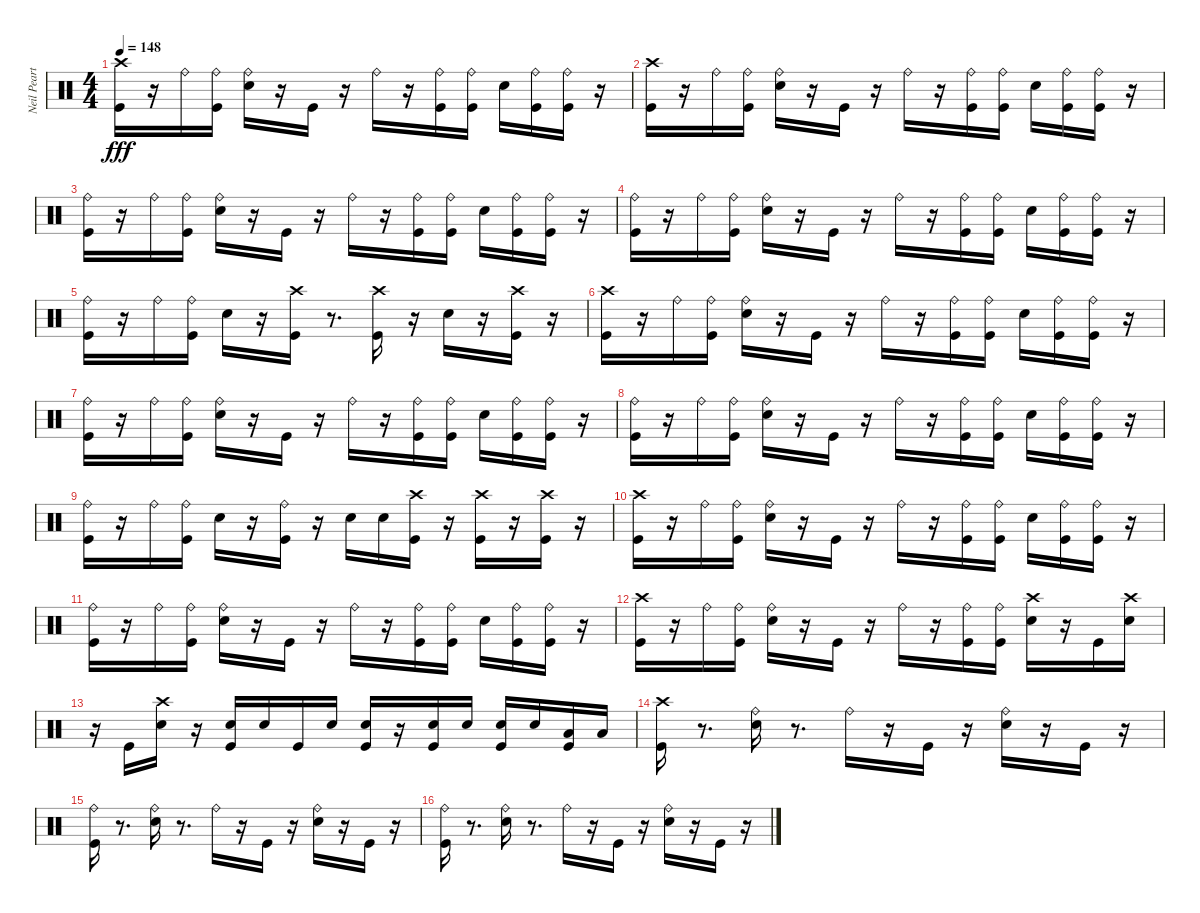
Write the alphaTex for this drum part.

\track ("Neil Peart" "Neil Peart") {instrument percussion}
\staff {score}
\articulation defaults
\ts (4 4)
\tempo 148
\clef neutral
\ks c
("Crash high (hit)" "Kick (hit)").16{dy fff} r.16 "Ride (bell)".16 ("Ride (bell)" "Kick (hit)").16 ("Ride (bell)" "Snare (hit) 2").16 r.16 "Kick (hit)".16 r.16 "Ride (bell)".16 r.16 ("Ride (bell)" "Kick (hit)").16 ("Ride (bell)" "Kick (hit)").16 "Snare (hit) 2".16 ("Ride (bell)" "Kick (hit)").16 ("Ride (bell)" "Kick (hit)").16 r.16 |
("Crash high (hit)" "Kick (hit)").16 r.16 "Ride (bell)".16 ("Ride (bell)" "Kick (hit)").16 ("Ride (bell)" "Snare (hit) 2").16 r.16 "Kick (hit)".16 r.16 "Ride (bell)".16 r.16 ("Ride (bell)" "Kick (hit)").16 ("Ride (bell)" "Kick (hit)").16 "Snare (hit) 2".16 ("Ride (bell)" "Kick (hit)").16 ("Ride (bell)" "Kick (hit)").16 r.16 |
("Kick (hit)" "Ride (bell)").16 r.16 "Ride (bell)".16 ("Kick (hit)" "Ride (bell)").16 ("Snare (hit) 2" "Ride (bell)").16 r.16 "Kick (hit)".16 r.16 "Ride (bell)".16 r.16 ("Kick (hit)" "Ride (bell)").16 ("Kick (hit)" "Ride (bell)").16 "Snare (hit) 2".16 ("Kick (hit)" "Ride (bell)").16 ("Kick (hit)" "Ride (bell)").16 r.16 |
("Kick (hit)" "Ride (bell)").16 r.16 "Ride (bell)".16 ("Kick (hit)" "Ride (bell)").16 ("Snare (hit) 2" "Ride (bell)").16 r.16 "Kick (hit)".16 r.16 "Ride (bell)".16 r.16 ("Kick (hit)" "Ride (bell)").16 ("Kick (hit)" "Ride (bell)").16 "Snare (hit) 2".16 ("Kick (hit)" "Ride (bell)").16 ("Kick (hit)" "Ride (bell)").16 r.16 |
("Ride (bell)" "Kick (hit)").16 r.16 "Ride (bell)".16 ("Ride (bell)" "Kick (hit)").16 "Snare (hit) 2".16 r.16 ("Crash high (hit)" "Kick (hit)").16 r.8{d} ("Crash high (hit)" "Kick (hit)").16 r.16 "Snare (hit) 2".16 r.16 ("Crash high (hit)" "Kick (hit)").16 r.16 |
("Crash high (hit)" "Kick (hit)").16 r.16 "Ride (bell)".16 ("Kick (hit)" "Ride (bell)").16 ("Snare (hit) 2" "Ride (bell)").16 r.16 "Kick (hit)".16 r.16 "Ride (bell)".16 r.16 ("Kick (hit)" "Ride (bell)").16 ("Kick (hit)" "Ride (bell)").16 "Snare (hit) 2".16 ("Kick (hit)" "Ride (bell)").16 ("Kick (hit)" "Ride (bell)").16 r.16 |
("Ride (bell)" "Kick (hit)").16 r.16 "Ride (bell)".16 ("Ride (bell)" "Kick (hit)").16 ("Ride (bell)" "Snare (hit) 2").16 r.16 "Kick (hit)".16 r.16 "Ride (bell)".16 r.16 ("Ride (bell)" "Kick (hit)").16 ("Ride (bell)" "Kick (hit)").16 "Snare (hit) 2".16 ("Ride (bell)" "Kick (hit)").16 ("Ride (bell)" "Kick (hit)").16 r.16 |
("Ride (bell)" "Kick (hit)").16 r.16 "Ride (bell)".16 ("Ride (bell)" "Kick (hit)").16 ("Ride (bell)" "Snare (hit) 2").16 r.16 "Kick (hit)".16 r.16 "Ride (bell)".16 r.16 ("Ride (bell)" "Kick (hit)").16 ("Ride (bell)" "Kick (hit)").16 "Snare (hit) 2".16 ("Ride (bell)" "Kick (hit)").16 ("Ride (bell)" "Kick (hit)").16 r.16 |
("Kick (hit)" "Ride (bell)").16 r.16 "Ride (bell)".16 ("Kick (hit)" "Ride (bell)").16 "Snare (hit) 2".16 r.16 ("Kick (hit)" "Ride (bell)").16 r.16 "Snare (hit) 2".16 "Snare (hit) 2".16 ("Crash high (hit)" "Kick (hit)").16 r.16 ("Crash high (hit)" "Kick (hit)").16 r.16 ("Crash high (hit)" "Kick (hit)").16 r.16 |
("Crash high (hit)" "Kick (hit)").16 r.16 "Ride (bell)".16 ("Ride (bell)" "Kick (hit)").16 ("Ride (bell)" "Snare (hit) 2").16 r.16 "Kick (hit)".16 r.16 "Ride (bell)".16 r.16 ("Ride (bell)" "Kick (hit)").16 ("Ride (bell)" "Kick (hit)").16 "Snare (hit) 2".16 ("Ride (bell)" "Kick (hit)").16 ("Ride (bell)" "Kick (hit)").16 r.16 |
("Kick (hit)" "Ride (bell)").16 r.16 "Ride (bell)".16 ("Kick (hit)" "Ride (bell)").16 ("Snare (hit) 2" "Ride (bell)").16 r.16 "Kick (hit)".16 r.16 "Ride (bell)".16 r.16 ("Kick (hit)" "Ride (bell)").16 ("Kick (hit)" "Ride (bell)").16 "Snare (hit) 2".16 ("Kick (hit)" "Ride (bell)").16 ("Kick (hit)" "Ride (bell)").16 r.16 |
("Crash high (hit)" "Kick (hit)").16 r.16 "Ride (bell)".16 ("Ride (bell)" "Kick (hit)").16 ("Ride (bell)" "Snare (hit) 2").16 r.16 "Kick (hit)".16 r.16 "Ride (bell)".16 r.16 ("Ride (bell)" "Kick (hit)").16 ("Ride (bell)" "Kick (hit)").16 ("Crash high (hit)" "Snare (hit) 2").16 r.16 "Kick (hit)".16 ("Crash high (hit)" "Snare (hit) 2").16 |
r.16 "Kick (hit)".16 ("Crash high (hit)" "Snare (hit) 2").16 r.16 ("Kick (hit)" "Snare (hit) 2").16 "Snare (hit) 2".16 "Kick (hit)".16 "Snare (hit) 2".16 ("Kick (hit)" "Snare (hit) 2").16 r.16 ("Kick (hit)" "Snare (hit) 2").16 "Snare (hit) 2".16 ("Kick (hit)" "Snare (hit) 2").16 "Snare (hit) 2".16 ("Kick (hit)" "Low Tom (hit)").16 "Low Tom (hit)".16 |
("Crash high (hit)" "Kick (hit)").16 r.8{d} ("Snare (hit) 2" "Ride (bell)").16 r.8{d} "Ride (bell)".16 r.16 "Kick (hit)".16 r.16 ("Snare (hit) 2" "Ride (bell)").16 r.16 "Kick (hit)".16 r.16 |
("Ride (bell)" "Kick (hit)").16 r.8{d} ("Ride (bell)" "Snare (hit) 2").16 r.8{d} "Ride (bell)".16 r.16 "Kick (hit)".16 r.16 ("Ride (bell)" "Snare (hit) 2").16 r.16 "Kick (hit)".16 r.16 |
("Ride (bell)" "Kick (hit)").16 r.8{d} ("Ride (bell)" "Snare (hit) 2").16 r.8{d} "Ride (bell)".16 r.16 "Kick (hit)".16 r.16 ("Ride (bell)" "Snare (hit) 2").16 r.16 "Kick (hit)".16 r.16
